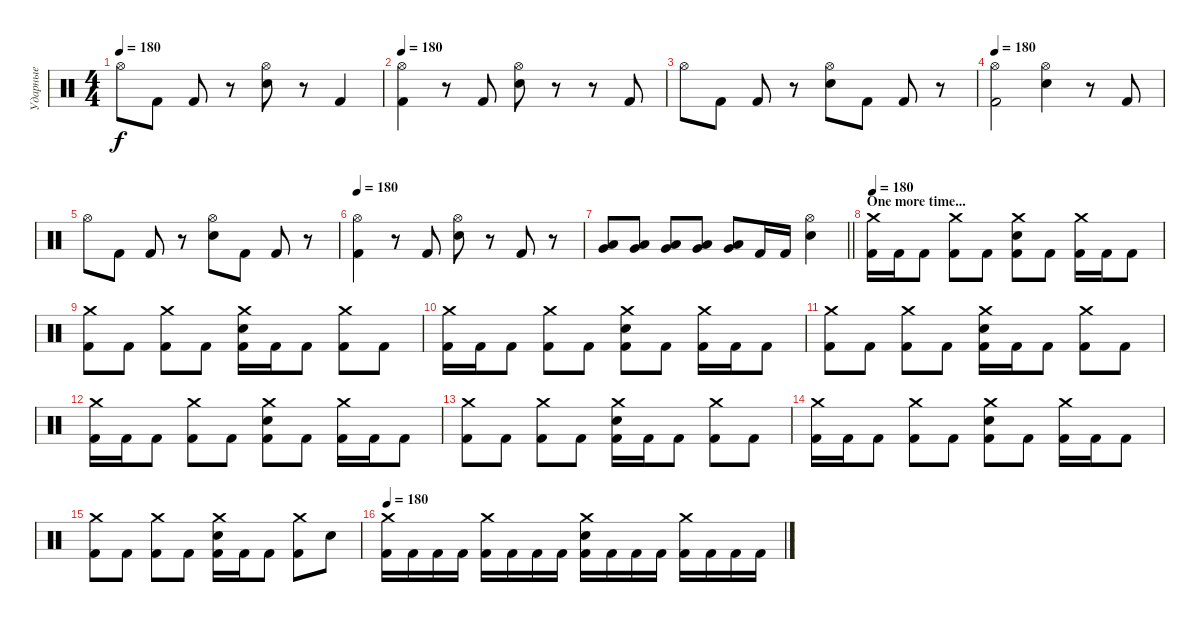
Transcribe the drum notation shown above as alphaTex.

\track ("Ударные" "Ударные") {instrument percussion}
\staff {score}
\articulation defaults
\ts (4 4)
\tempo 180
\clef neutral
\ks c "Hi-Hat (open)".8{dy f} "Kick (hit) 2".8 "Kick (hit) 2".8
r.8 ("Hi-Hat (open)" "Electric Snare (hit)").8 r.8 "Kick (hit) 2".4 |
\tempo 180
("Hi-Hat (open)" "Kick (hit) 2").4 r.8 "Kick (hit) 2".8 ("Hi-Hat (open)" "Electric Snare (hit)").8 r.8 r.8 "Kick (hit) 2".8 |
"Hi-Hat (open)".8 "Kick (hit) 2".8 "Kick (hit) 2".8 r.8 ("Hi-Hat (open)" "Electric Snare (hit)").8 "Kick (hit) 2".8 "Kick (hit) 2".8 r.8 |
\tempo 180
("Hi-Hat (open)" "Kick (hit) 2").2 ("Hi-Hat (open)" "Electric Snare (hit)").4 r.8 "Kick (hit) 2".8 |
"Hi-Hat (open)".8 "Kick (hit) 2".8 "Kick (hit) 2".8 r.8 ("Hi-Hat (open)" "Electric Snare (hit)").8 "Kick (hit) 2".8 "Kick (hit) 2".8 r.8 |
\tempo 180
("Hi-Hat (open)" "Kick (hit) 2").4 r.8 "Kick (hit) 2".8 ("Hi-Hat (open)" "Electric Snare (hit)").8 r.8 "Kick (hit) 2".8 r.8 |
\barLineRight lightlight
("Low Floor Tom (hit)" "Very Low Tom (hit)").8 ("Low Floor Tom (hit)" "Very Low Tom (hit)").8 ("Low Floor Tom (hit)" "Very Low Tom (hit)").8 ("Low Floor Tom (hit)" "Very Low Tom (hit)").8 ("Low Floor Tom (hit)" "Very Low Tom (hit)").8 "Kick (hit) 2".16 "Kick (hit) 2".16 ("Hi-Hat (open)" "Electric Snare (hit)").4 |
\section ("" "One more time...")
\tempo 180
("Crash medium (hit)" "Kick (hit) 2").16 "Kick (hit) 2".16 "Kick (hit) 2".8 ("Crash medium (hit)" "Kick (hit) 2").8 "Kick (hit) 2".8 ("Crash medium (hit)" "Electric Snare (hit)" "Kick (hit) 2").8 "Kick (hit) 2".8 ("Crash medium (hit)" "Kick (hit) 2").16 "Kick (hit) 2".16 "Kick (hit) 2".8 |
("Crash medium (hit)" "Kick (hit) 2").8 "Kick (hit) 2".8 ("Crash medium (hit)" "Kick (hit) 2").8 "Kick (hit) 2".8 ("Crash medium (hit)" "Electric Snare (hit)" "Kick (hit) 2").16 "Kick (hit) 2".16 "Kick (hit) 2".8 ("Crash medium (hit)" "Kick (hit) 2").8 "Kick (hit) 2".8 |
("Crash medium (hit)" "Kick (hit) 2").16 "Kick (hit) 2".16 "Kick (hit) 2".8 ("Crash medium (hit)" "Kick (hit) 2").8 "Kick (hit) 2".8 ("Crash medium (hit)" "Electric Snare (hit)" "Kick (hit) 2").8 "Kick (hit) 2".8 ("Crash medium (hit)" "Kick (hit) 2").16 "Kick (hit) 2".16 "Kick (hit) 2".8 |
("Crash medium (hit)" "Kick (hit) 2").8 "Kick (hit) 2".8 ("Crash medium (hit)" "Kick (hit) 2").8 "Kick (hit) 2".8 ("Crash medium (hit)" "Electric Snare (hit)" "Kick (hit) 2").16 "Kick (hit) 2".16 "Kick (hit) 2".8 ("Crash medium (hit)" "Kick (hit) 2").8 "Kick (hit) 2".8 |
("Crash medium (hit)" "Kick (hit) 2").16 "Kick (hit) 2".16 "Kick (hit) 2".8 ("Crash medium (hit)" "Kick (hit) 2").8 "Kick (hit) 2".8 ("Crash medium (hit)" "Electric Snare (hit)" "Kick (hit) 2").8 "Kick (hit) 2".8 ("Crash medium (hit)" "Kick (hit) 2").16 "Kick (hit) 2".16 "Kick (hit) 2".8 |
("Crash medium (hit)" "Kick (hit) 2").8 "Kick (hit) 2".8 ("Crash medium (hit)" "Kick (hit) 2").8 "Kick (hit) 2".8 ("Crash medium (hit)" "Electric Snare (hit)" "Kick (hit) 2").16 "Kick (hit) 2".16 "Kick (hit) 2".8 ("Crash medium (hit)" "Kick (hit) 2").8 "Kick (hit) 2".8 |
("Crash medium (hit)" "Kick (hit) 2").16 "Kick (hit) 2".16 "Kick (hit) 2".8 ("Crash medium (hit)" "Kick (hit) 2").8 "Kick (hit) 2".8 ("Crash medium (hit)" "Electric Snare (hit)" "Kick (hit) 2").8 "Kick (hit) 2".8 ("Crash medium (hit)" "Kick (hit) 2").16 "Kick (hit) 2".16 "Kick (hit) 2".8 |
("Crash medium (hit)" "Kick (hit) 2").8 "Kick (hit) 2".8 ("Crash medium (hit)" "Kick (hit) 2").8 "Kick (hit) 2".8 ("Crash medium (hit)" "Electric Snare (hit)" "Kick (hit) 2").16 "Kick (hit) 2".16 "Kick (hit) 2".8 ("Crash medium (hit)" "Kick (hit) 2").8 "Electric Snare (hit)".8 |
\tempo 180
("Crash medium (hit)" "Kick (hit) 2").16 "Kick (hit) 2".16 "Kick (hit) 2".16 "Kick (hit) 2".16 ("Crash medium (hit)" "Kick (hit) 2").16 "Kick (hit) 2".16 "Kick (hit) 2".16 "Kick (hit) 2".16 ("Crash medium (hit)" "Electric Snare (hit)" "Kick (hit) 2").16 "Kick (hit) 2".16 "Kick (hit) 2".16 "Kick (hit) 2".16 ("Crash medium (hit)" "Kick (hit) 2").16 "Kick (hit) 2".16 "Kick (hit) 2".16 "Kick (hit) 2".16
